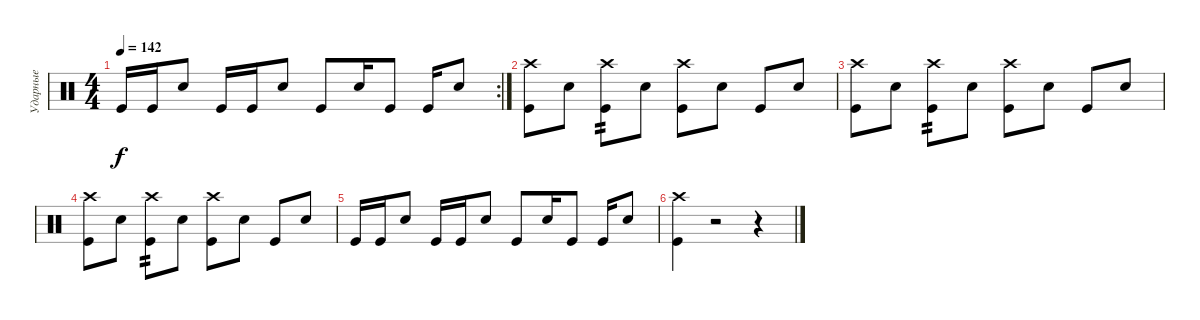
\track ("Ударные" "Ударные") {instrument percussion}
\staff {score}
\articulation defaults
\rc 2
\ts (4 4)
\tempo 142
\clef neutral
\ks c "Kick (hit)".16{dy f} "Kick (hit)".16 "Electric Snare (hit)".8 "Kick (hit)".16 "Kick (hit)".16 "Electric Snare (hit)".8 "Kick (hit)".8 "Electric Snare (hit)".16 "Kick (hit)".8 "Kick (hit)".16 "Electric Snare (hit)".8
|
("Crash high (hit)" "Kick (hit)").8 "Electric Snare (hit)".8 ("Crash high (hit)" "Kick (hit)").8{tp 2} "Electric Snare (hit)".8 ("Crash high (hit)" "Kick (hit)").8 "Electric Snare (hit)".8 "Kick (hit)".8 "Electric Snare (hit)".8 |
("Crash high (hit)" "Kick (hit)").8 "Electric Snare (hit)".8 ("Crash high (hit)" "Kick (hit)").8{tp 2} "Electric Snare (hit)".8 ("Crash high (hit)" "Kick (hit)").8 "Electric Snare (hit)".8 "Kick (hit)".8 "Electric Snare (hit)".8 |
("Crash high (hit)" "Kick (hit)").8 "Electric Snare (hit)".8 ("Crash high (hit)" "Kick (hit)").8{tp 2} "Electric Snare (hit)".8 ("Crash high (hit)" "Kick (hit)").8 "Electric Snare (hit)".8 "Kick (hit)".8 "Electric Snare (hit)".8 |
"Kick (hit)".16 "Kick (hit)".16 "Electric Snare (hit)".8 "Kick (hit)".16 "Kick (hit)".16 "Electric Snare (hit)".8 "Kick (hit)".8 "Electric Snare (hit)".16 "Kick (hit)".8 "Kick (hit)".16 "Electric Snare (hit)".8 |
("Crash high (hit)" "Kick (hit)").4 r.2 r.4
